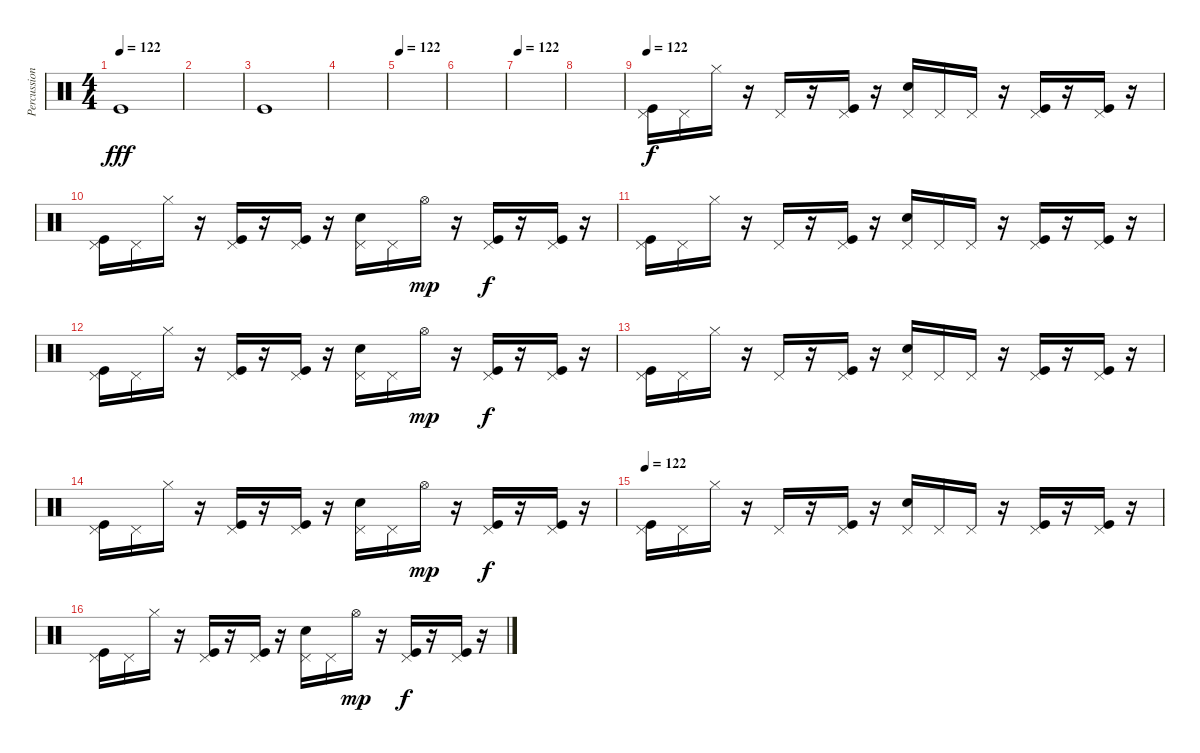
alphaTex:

\track ("Percussions" "Percussion") {instrument percussion}
\staff {score}
\articulation defaults
\ts (4 4)
\tempo 122
\tempo 100
\tempo 122
\clef neutral
\ks c "Kick (hit)".1{dy fff}
|
|
"Kick (hit)".1 |
|
\tempo 122
|
|
\tempo 122
|
|
\tempo 122
("Pedal Hi-Hat (hit)" "Kick (hit)").16{dy f} "Pedal Hi-Hat (hit)".16 "Hi-Hat (closed)".16 r.16 "Pedal Hi-Hat (hit)".16 r.16 ("Pedal Hi-Hat (hit)" "Kick (hit)").16 r.16 ("Pedal Hi-Hat (hit)" "Electric Snare (hit)").16 "Pedal Hi-Hat (hit)".16 "Pedal Hi-Hat (hit)".16 r.16 ("Pedal Hi-Hat (hit)" "Kick (hit)").16 r.16 ("Pedal Hi-Hat (hit)" "Kick (hit)").16 r.16 |
("Pedal Hi-Hat (hit)" "Kick (hit)").16 "Pedal Hi-Hat (hit)".16 "Hi-Hat (closed)".16 r.16 ("Pedal Hi-Hat (hit)" "Kick (hit)").16 r.16 ("Pedal Hi-Hat (hit)" "Kick (hit)").16 r.16 ("Pedal Hi-Hat (hit)" "Electric Snare (hit)").16 "Pedal Hi-Hat (hit)".16 "Hi-Hat (open)".16{dy mp} r.16 ("Pedal Hi-Hat (hit)" "Kick (hit)").16{dy f} r.16 ("Pedal Hi-Hat (hit)" "Kick (hit)").16 r.16 |
("Pedal Hi-Hat (hit)" "Kick (hit)").16 "Pedal Hi-Hat (hit)".16 "Hi-Hat (closed)".16 r.16 "Pedal Hi-Hat (hit)".16 r.16 ("Pedal Hi-Hat (hit)" "Kick (hit)").16 r.16 ("Pedal Hi-Hat (hit)" "Electric Snare (hit)").16 "Pedal Hi-Hat (hit)".16 "Pedal Hi-Hat (hit)".16 r.16 ("Pedal Hi-Hat (hit)" "Kick (hit)").16 r.16 ("Pedal Hi-Hat (hit)" "Kick (hit)").16 r.16 |
("Pedal Hi-Hat (hit)" "Kick (hit)").16 "Pedal Hi-Hat (hit)".16 "Hi-Hat (closed)".16 r.16 ("Pedal Hi-Hat (hit)" "Kick (hit)").16 r.16 ("Pedal Hi-Hat (hit)" "Kick (hit)").16 r.16 ("Pedal Hi-Hat (hit)" "Electric Snare (hit)").16 "Pedal Hi-Hat (hit)".16 "Hi-Hat (open)".16{dy mp} r.16 ("Pedal Hi-Hat (hit)" "Kick (hit)").16{dy f} r.16 ("Pedal Hi-Hat (hit)" "Kick (hit)").16 r.16 |
("Pedal Hi-Hat (hit)" "Kick (hit)").16 "Pedal Hi-Hat (hit)".16 "Hi-Hat (closed)".16 r.16 "Pedal Hi-Hat (hit)".16 r.16 ("Pedal Hi-Hat (hit)" "Kick (hit)").16 r.16 ("Pedal Hi-Hat (hit)" "Electric Snare (hit)").16 "Pedal Hi-Hat (hit)".16 "Pedal Hi-Hat (hit)".16 r.16 ("Pedal Hi-Hat (hit)" "Kick (hit)").16 r.16 ("Pedal Hi-Hat (hit)" "Kick (hit)").16 r.16 |
("Pedal Hi-Hat (hit)" "Kick (hit)").16 "Pedal Hi-Hat (hit)".16 "Hi-Hat (closed)".16 r.16 ("Pedal Hi-Hat (hit)" "Kick (hit)").16 r.16 ("Pedal Hi-Hat (hit)" "Kick (hit)").16 r.16 ("Pedal Hi-Hat (hit)" "Electric Snare (hit)").16 "Pedal Hi-Hat (hit)".16 "Hi-Hat (open)".16{dy mp} r.16 ("Pedal Hi-Hat (hit)" "Kick (hit)").16{dy f} r.16 ("Pedal Hi-Hat (hit)" "Kick (hit)").16 r.16 |
\tempo 122
("Pedal Hi-Hat (hit)" "Kick (hit)").16 "Pedal Hi-Hat (hit)".16 "Hi-Hat (closed)".16 r.16 "Pedal Hi-Hat (hit)".16 r.16 ("Pedal Hi-Hat (hit)" "Kick (hit)").16 r.16 ("Pedal Hi-Hat (hit)" "Electric Snare (hit)").16 "Pedal Hi-Hat (hit)".16 "Pedal Hi-Hat (hit)".16 r.16 ("Pedal Hi-Hat (hit)" "Kick (hit)").16 r.16 ("Pedal Hi-Hat (hit)" "Kick (hit)").16 r.16 |
("Pedal Hi-Hat (hit)" "Kick (hit)").16 "Pedal Hi-Hat (hit)".16 "Hi-Hat (closed)".16 r.16 ("Pedal Hi-Hat (hit)" "Kick (hit)").16 r.16 ("Pedal Hi-Hat (hit)" "Kick (hit)").16 r.16 ("Pedal Hi-Hat (hit)" "Electric Snare (hit)").16 "Pedal Hi-Hat (hit)".16 "Hi-Hat (open)".16{dy mp} r.16 ("Pedal Hi-Hat (hit)" "Kick (hit)").16{dy f} r.16 ("Pedal Hi-Hat (hit)" "Kick (hit)").16 r.16
